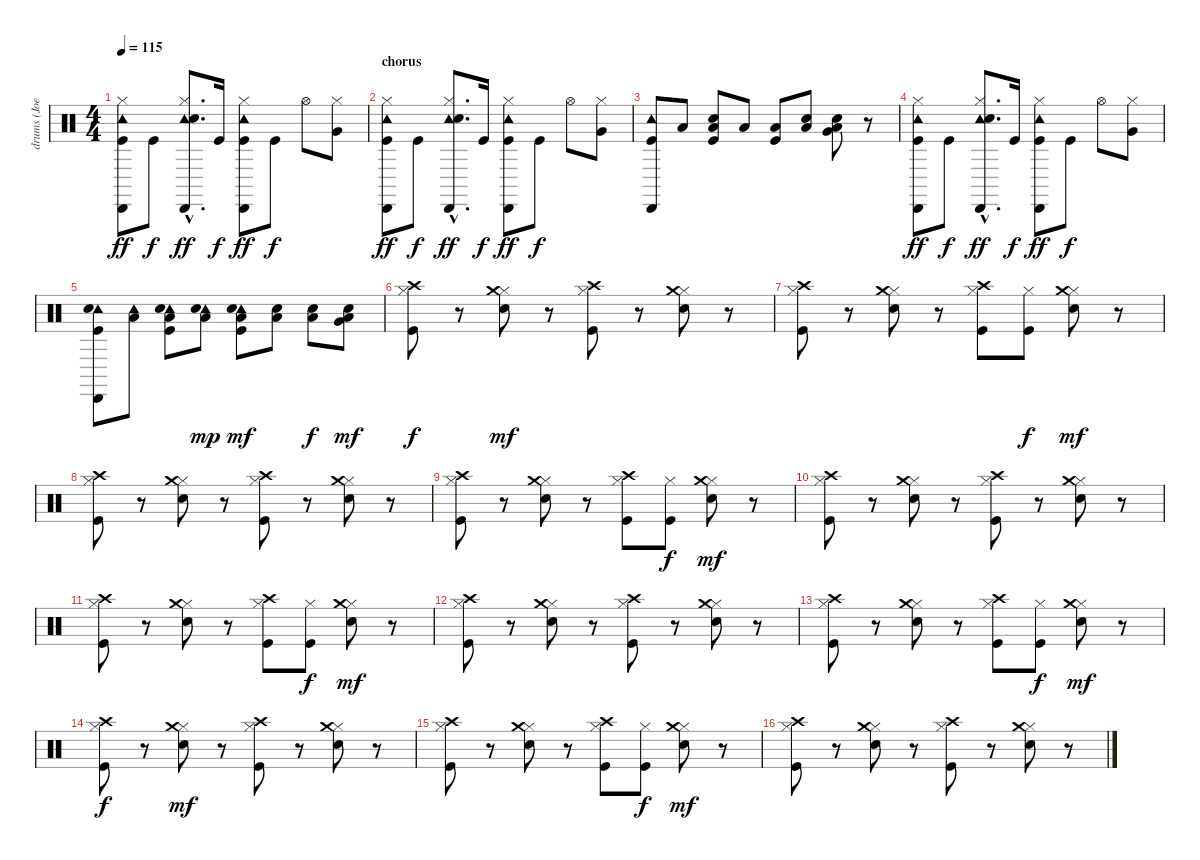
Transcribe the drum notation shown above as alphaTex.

\track ("drums (Joey Castillo)" "drums (Joe") {instrument percussion}
\staff {score}
\articulation defaults
\ts (4 4)
\tempo 115
\clef neutral
\ks c
("Tambourine (hit)" "Cabasa (hit)" "Kick (hit)" "Hi-Hat (closed)").8{dy ff} "Kick (hit)".8{dy f} ("Tambourine (hit)"{hac} "Cabasa (hit)"{hac} "Electric Snare (hit)"{hac} "Hi-Hat (closed)"{hac}).8{d dy ff} "Kick (hit)".16{dy f} ("Tambourine (hit)" "Cabasa (hit)" "Kick (hit)" "Hi-Hat (closed)").8{dy ff} "Kick (hit)".8{dy f} "Hi-Hat (open)".8 ("Very Low Tom (hit)" "Hi-Hat (closed)").8 |
\section ("" "chorus")
("Tambourine (hit)" "Cabasa (hit)" "Kick (hit)" "Hi-Hat (closed)").8{dy ff} "Kick (hit)".8{dy f} ("Tambourine (hit)"{hac} "Cabasa (hit)"{hac} "Electric Snare (hit)"{hac} "Hi-Hat (closed)"{hac}).8{d dy ff} "Kick (hit)".16{dy f} ("Tambourine (hit)" "Cabasa (hit)" "Kick (hit)" "Hi-Hat (closed)").8{dy ff} "Kick (hit)".8{dy f} "Hi-Hat (open)".8 ("Very Low Tom (hit)" "Hi-Hat (closed)").8 |
("Tambourine (hit)" "Cabasa (hit)" "Kick (hit)").8 "Low Tom (hit)".8 ("Low Tom (hit)" "Electric Snare (hit)" "Kick (hit)").8 "Low Tom (hit)".8 ("Low Tom (hit)" "Kick (hit)").8 ("Low Tom (hit)" "Electric Snare (hit)").8 ("Low Tom (hit)" "Very Low Tom (hit)" "Electric Snare (hit)").8 r.8 |
("Tambourine (hit)" "Cabasa (hit)" "Kick (hit)" "Hi-Hat (closed)").8{dy ff} "Kick (hit)".8{dy f} ("Tambourine (hit)"{hac} "Cabasa (hit)"{hac} "Electric Snare (hit)"{hac} "Hi-Hat (closed)"{hac}).8{d dy ff} "Kick (hit)".16{dy f} ("Tambourine (hit)" "Cabasa (hit)" "Kick (hit)" "Hi-Hat (closed)").8{dy ff} "Kick (hit)".8{dy f} "Hi-Hat (open)".8 ("Very Low Tom (hit)" "Hi-Hat (closed)").8 |
("Tambourine (hit)" "Cabasa (hit)" "Electric Snare (hit)" "Kick (hit)").8 ("Tambourine (hit)" "Low Tom (hit)").8 ("Tambourine (hit)" "Low Tom (hit)" "Electric Snare (hit)" "Kick (hit)").8 ("Tambourine (hit)" "Low Tom (hit)" "Electric Snare (hit)").8{dy mp} ("Tambourine (hit)" "Low Tom (hit)" "Electric Snare (hit)" "Kick (hit)").8{dy mf} ("Low Tom (hit)" "Electric Snare (hit)").8 ("Low Tom (hit)" "Electric Snare (hit)").8{dy f} ("Low Tom (hit)" "Very Low Tom (hit)" "Electric Snare (hit)").8{dy mf} |
("Kick (hit)" "Hi-Hat (closed)" "Crash high (hit)").8{dy f} r.8 ("Electric Snare (hit)" "Hi-Hat (closed)" "Crash medium (hit)").8{dy mf} r.8 ("Kick (hit)" "Hi-Hat (closed)" "Crash high (hit)").8 r.8 ("Electric Snare (hit)" "Hi-Hat (closed)" "Crash medium (hit)").8 r.8 |
("Kick (hit)" "Hi-Hat (closed)" "Crash high (hit)").8 r.8 ("Electric Snare (hit)" "Hi-Hat (closed)" "Crash medium (hit)").8 r.8 ("Kick (hit)" "Hi-Hat (closed)" "Crash high (hit)").8 ("Kick (hit)" "Hi-Hat (closed)").8{dy f} ("Electric Snare (hit)" "Hi-Hat (closed)" "Crash medium (hit)").8{dy mf} r.8 |
("Kick (hit)" "Hi-Hat (closed)" "Crash high (hit)").8 r.8 ("Electric Snare (hit)" "Hi-Hat (closed)" "Crash medium (hit)").8 r.8 ("Kick (hit)" "Hi-Hat (closed)" "Crash high (hit)").8 r.8 ("Electric Snare (hit)" "Hi-Hat (closed)" "Crash medium (hit)").8 r.8 |
("Kick (hit)" "Hi-Hat (closed)" "Crash high (hit)").8 r.8 ("Electric Snare (hit)" "Hi-Hat (closed)" "Crash medium (hit)").8 r.8 ("Kick (hit)" "Hi-Hat (closed)" "Crash high (hit)").8 ("Kick (hit)" "Hi-Hat (closed)").8{dy f} ("Electric Snare (hit)" "Hi-Hat (closed)" "Crash medium (hit)").8{dy mf} r.8 |
("Kick (hit)" "Hi-Hat (closed)" "Crash high (hit)").8 r.8 ("Electric Snare (hit)" "Hi-Hat (closed)" "Crash medium (hit)").8 r.8 ("Kick (hit)" "Hi-Hat (closed)" "Crash high (hit)").8 r.8 ("Electric Snare (hit)" "Hi-Hat (closed)" "Crash medium (hit)").8 r.8 |
("Kick (hit)" "Hi-Hat (closed)" "Crash high (hit)").8 r.8 ("Electric Snare (hit)" "Hi-Hat (closed)" "Crash medium (hit)").8 r.8 ("Kick (hit)" "Hi-Hat (closed)" "Crash high (hit)").8 ("Kick (hit)" "Hi-Hat (closed)").8{dy f} ("Electric Snare (hit)" "Hi-Hat (closed)" "Crash medium (hit)").8{dy mf} r.8 |
("Kick (hit)" "Hi-Hat (closed)" "Crash high (hit)").8 r.8 ("Electric Snare (hit)" "Hi-Hat (closed)" "Crash medium (hit)").8 r.8 ("Kick (hit)" "Hi-Hat (closed)" "Crash high (hit)").8 r.8 ("Electric Snare (hit)" "Hi-Hat (closed)" "Crash medium (hit)").8 r.8 |
("Kick (hit)" "Hi-Hat (closed)" "Crash high (hit)").8 r.8 ("Electric Snare (hit)" "Hi-Hat (closed)" "Crash medium (hit)").8 r.8 ("Kick (hit)" "Hi-Hat (closed)" "Crash high (hit)").8 ("Kick (hit)" "Hi-Hat (closed)").8{dy f} ("Electric Snare (hit)" "Hi-Hat (closed)" "Crash medium (hit)").8{dy mf} r.8 |
("Kick (hit)" "Hi-Hat (closed)" "Crash high (hit)").8{dy f} r.8 ("Electric Snare (hit)" "Hi-Hat (closed)" "Crash medium (hit)").8{dy mf} r.8 ("Kick (hit)" "Hi-Hat (closed)" "Crash high (hit)").8 r.8 ("Electric Snare (hit)" "Hi-Hat (closed)" "Crash medium (hit)").8 r.8 |
("Kick (hit)" "Hi-Hat (closed)" "Crash high (hit)").8 r.8 ("Electric Snare (hit)" "Hi-Hat (closed)" "Crash medium (hit)").8 r.8 ("Kick (hit)" "Hi-Hat (closed)" "Crash high (hit)").8 ("Kick (hit)" "Hi-Hat (closed)").8{dy f} ("Electric Snare (hit)" "Hi-Hat (closed)" "Crash medium (hit)").8{dy mf} r.8 |
("Kick (hit)" "Hi-Hat (closed)" "Crash high (hit)").8 r.8 ("Electric Snare (hit)" "Hi-Hat (closed)" "Crash medium (hit)").8 r.8 ("Kick (hit)" "Hi-Hat (closed)" "Crash high (hit)").8 r.8 ("Electric Snare (hit)" "Hi-Hat (closed)" "Crash medium (hit)").8 r.8
